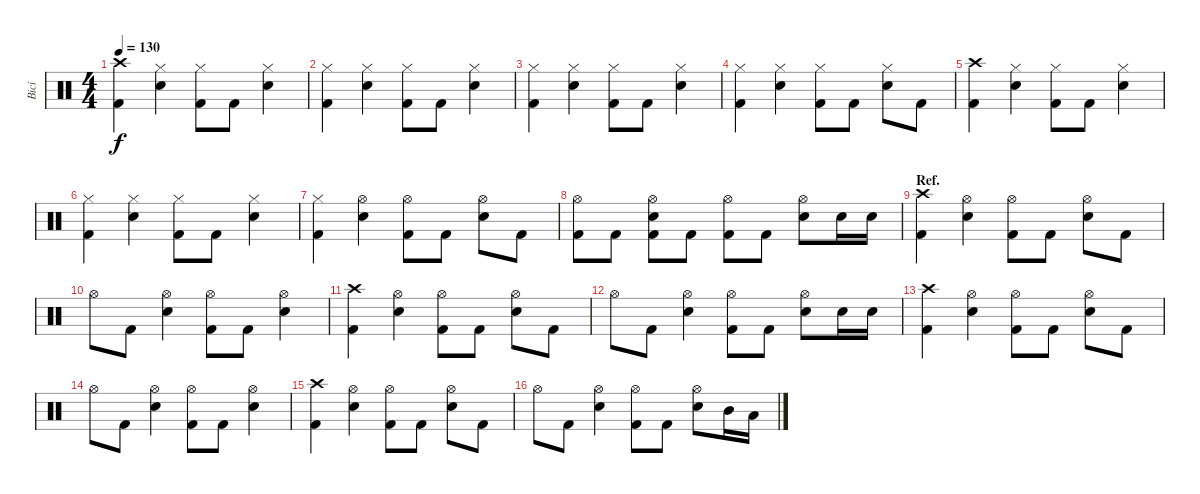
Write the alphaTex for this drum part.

\track ("Bicí" "Bicí") {instrument percussion}
\staff {score}
\articulation defaults
\ts (4 4)
\tempo 130
\clef neutral
\ks c
("Crash high (hit)" "Kick (hit) 2").4{dy f} ("Hi-Hat (closed)" "Snare (hit) 2").4 ("Hi-Hat (closed)" "Kick (hit) 2").8 "Kick (hit) 2".8 ("Hi-Hat (closed)" "Snare (hit) 2").4 |
("Hi-Hat (closed)" "Kick (hit) 2").4 ("Hi-Hat (closed)" "Snare (hit) 2").4 ("Hi-Hat (closed)" "Kick (hit) 2").8 "Kick (hit) 2".8 ("Hi-Hat (closed)" "Snare (hit) 2").4 |
("Hi-Hat (closed)" "Kick (hit) 2").4 ("Hi-Hat (closed)" "Snare (hit) 2").4 ("Hi-Hat (closed)" "Kick (hit) 2").8 "Kick (hit) 2".8 ("Hi-Hat (closed)" "Snare (hit) 2").4 |
("Hi-Hat (closed)" "Kick (hit) 2").4 ("Hi-Hat (closed)" "Snare (hit) 2").4 ("Hi-Hat (closed)" "Kick (hit) 2").8 "Kick (hit) 2".8 ("Hi-Hat (closed)" "Snare (hit) 2").8 "Kick (hit) 2".8 |
("Crash high (hit)" "Kick (hit) 2").4 ("Hi-Hat (closed)" "Snare (hit) 2").4 ("Hi-Hat (closed)" "Kick (hit) 2").8 "Kick (hit) 2".8 ("Hi-Hat (closed)" "Snare (hit) 2").4 |
("Hi-Hat (closed)" "Kick (hit) 2").4 ("Hi-Hat (closed)" "Snare (hit) 2").4 ("Hi-Hat (closed)" "Kick (hit) 2").8 "Kick (hit) 2".8 ("Hi-Hat (closed)" "Snare (hit) 2").4 |
("Hi-Hat (closed)" "Kick (hit) 2").4 ("Hi-Hat (open)" "Snare (hit) 2").4 ("Hi-Hat (open)" "Kick (hit) 2").8 "Kick (hit) 2".8 ("Hi-Hat (open)" "Snare (hit) 2").8 "Kick (hit) 2".8 |
("Hi-Hat (open)" "Kick (hit) 2").8 "Kick (hit) 2".8 ("Hi-Hat (open)" "Snare (hit) 2" "Kick (hit) 2").8 "Kick (hit) 2".8 ("Hi-Hat (open)" "Kick (hit) 2").8 "Kick (hit) 2".8 ("Hi-Hat (open)" "Snare (hit) 2").8 "Snare (hit) 2".16 "Snare (hit) 2".16 |
\section ("" "Ref.")
("Crash high (hit)" "Kick (hit) 2").4 ("Hi-Hat (open)" "Snare (hit) 2").4 ("Hi-Hat (open)" "Kick (hit) 2").8 "Kick (hit) 2".8 ("Hi-Hat (open)" "Snare (hit) 2").8 "Kick (hit) 2".8 |
"Hi-Hat (open)".8 "Kick (hit) 2".8 ("Hi-Hat (open)" "Snare (hit) 2").4 ("Hi-Hat (open)" "Kick (hit) 2").8 "Kick (hit) 2".8 ("Hi-Hat (open)" "Snare (hit) 2").4 |
("Crash high (hit)" "Kick (hit) 2").4 ("Hi-Hat (open)" "Snare (hit) 2").4 ("Hi-Hat (open)" "Kick (hit) 2").8 "Kick (hit) 2".8 ("Hi-Hat (open)" "Snare (hit) 2").8 "Kick (hit) 2".8 |
"Hi-Hat (open)".8 "Kick (hit) 2".8 ("Hi-Hat (open)" "Snare (hit) 2").4 ("Hi-Hat (open)" "Kick (hit) 2").8 "Kick (hit) 2".8 ("Hi-Hat (open)" "Snare (hit) 2").8 "Snare (hit) 2".16 "Snare (hit) 2".16 |
("Crash high (hit)" "Kick (hit) 2").4 ("Hi-Hat (open)" "Snare (hit) 2").4 ("Hi-Hat (open)" "Kick (hit) 2").8 "Kick (hit) 2".8 ("Hi-Hat (open)" "Snare (hit) 2").8 "Kick (hit) 2".8 |
"Hi-Hat (open)".8 "Kick (hit) 2".8 ("Hi-Hat (open)" "Snare (hit) 2").4 ("Hi-Hat (open)" "Kick (hit) 2").8 "Kick (hit) 2".8 ("Hi-Hat (open)" "Snare (hit) 2").4 |
("Crash high (hit)" "Kick (hit) 2").4 ("Hi-Hat (open)" "Snare (hit) 2").4 ("Hi-Hat (open)" "Kick (hit) 2").8 "Kick (hit) 2".8 ("Hi-Hat (open)" "Snare (hit) 2").8 "Kick (hit) 2".8 |
"Hi-Hat (open)".8 "Kick (hit) 2".8 ("Hi-Hat (open)" "Snare (hit) 2").4 ("Hi-Hat (open)" "Kick (hit) 2").8 "Kick (hit) 2".8 ("Hi-Hat (open)" "Snare (hit) 2").8 "Mid Tom (hit)".16 "Low Tom (hit)".16
